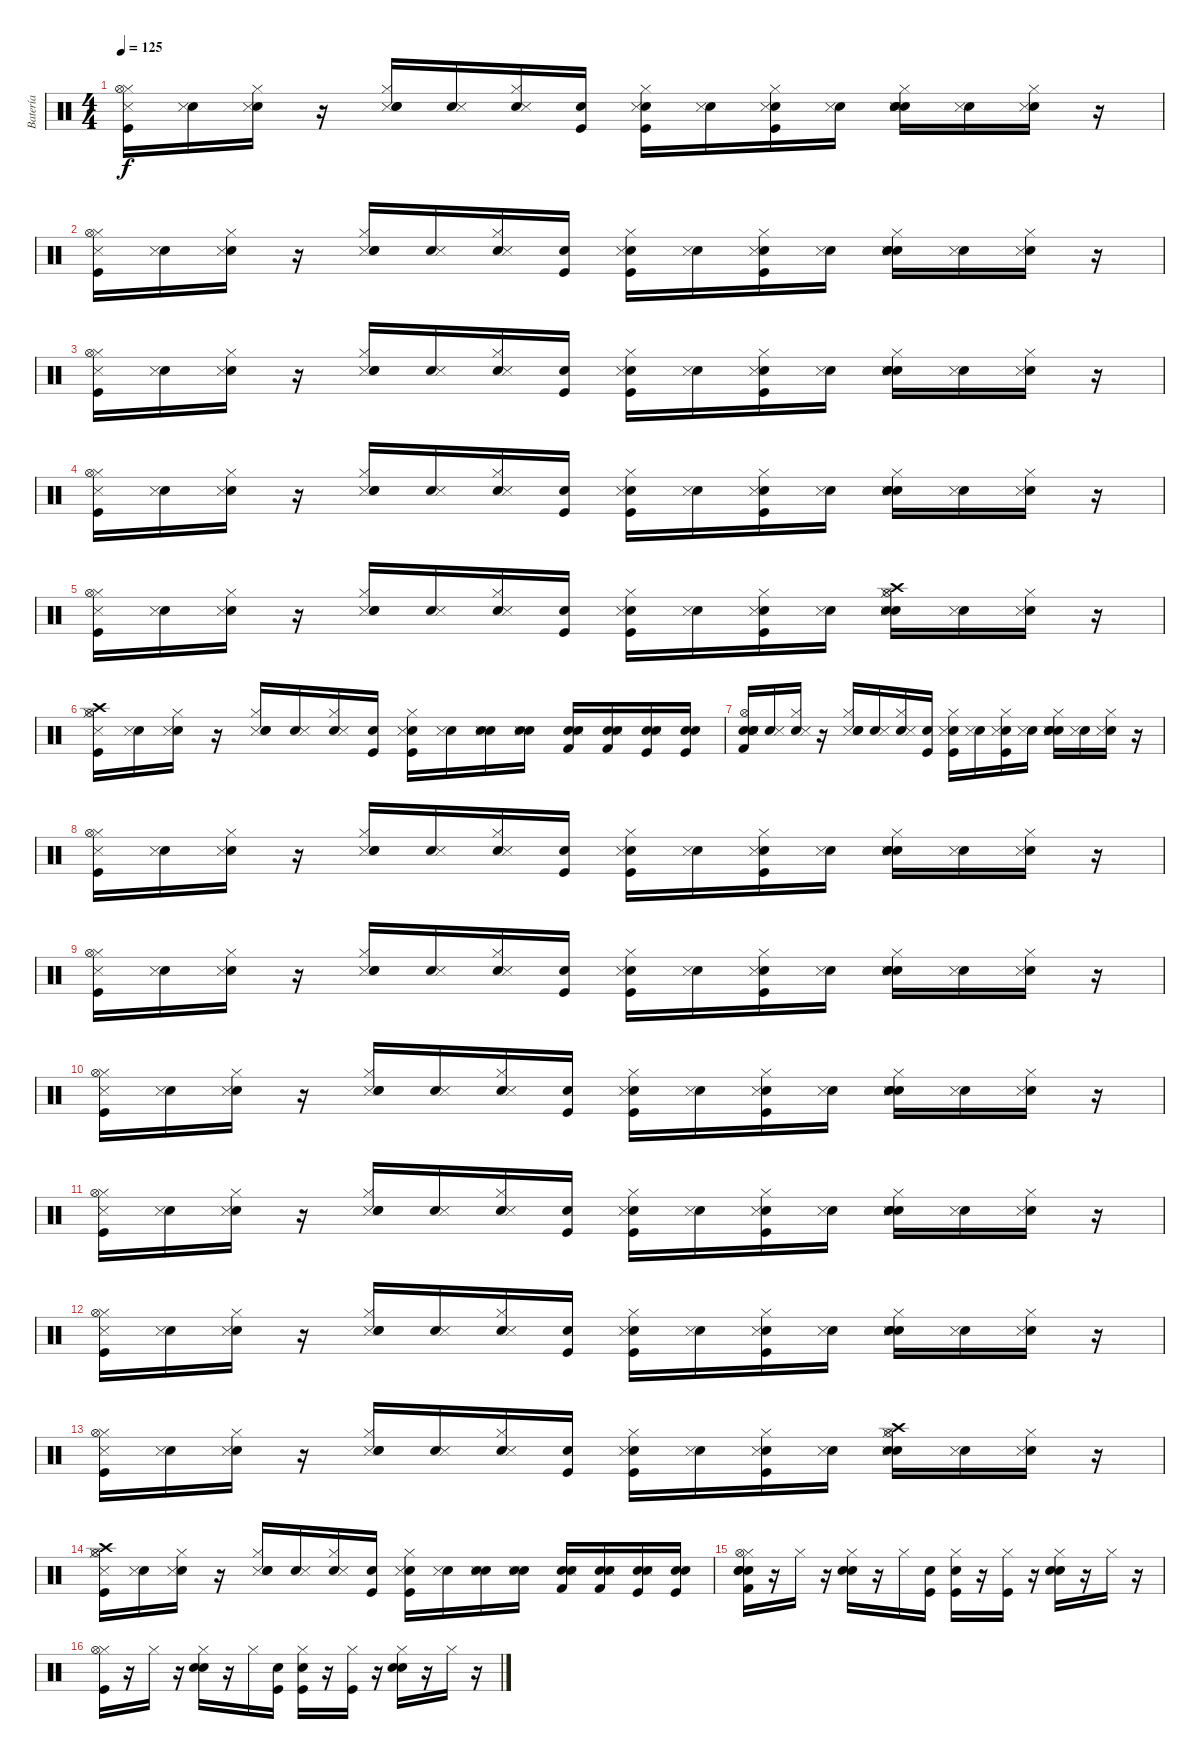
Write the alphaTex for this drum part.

\track ("Batería" "Batería") {instrument percussion}
\staff {score}
\articulation defaults
\ts (4 4)
\tempo 125
\clef neutral
\ks c
("Snare (side stick) 3" "Kick (hit)" "Hi-Hat (closed)" "Hi-Hat (open)").16{dy f} ("Snare (hit)" "Snare (side stick) 3").16 ("Snare (hit)" "Snare (side stick) 3" "Hi-Hat (closed)").16 r.16 ("Snare (side stick) 3" "Snare (hit) 2" "Electric Snare (hit)" "Hi-Hat (closed)").16 ("Snare (hit)" "Snare (side stick) 3").16 ("Snare (hit)" "Snare (side stick) 3" "Hi-Hat (closed)").16 ("Snare (hit)" "Kick (hit)").16 ("Snare (hit)" "Snare (side stick) 3" "Kick (hit)" "Hi-Hat (closed)").16 ("Snare (hit)" "Snare (side stick) 3").16 ("Snare (hit)" "Snare (side stick) 3" "Kick (hit)" "Hi-Hat (closed)").16 ("Snare (hit)" "Snare (side stick) 3").16 ("Snare (hit)" "Snare (side stick) 3" "Snare (hit) 2" "Electric Snare (hit)" "Hi-Hat (closed)").16 ("Snare (hit)" "Snare (side stick) 3").16 ("Snare (hit)" "Snare (side stick) 3" "Hi-Hat (closed)").16 r.16 |
("Snare (side stick) 3" "Kick (hit)" "Hi-Hat (closed)" "Hi-Hat (open)").16 ("Snare (hit)" "Snare (side stick) 3").16 ("Snare (hit)" "Snare (side stick) 3" "Hi-Hat (closed)").16 r.16 ("Snare (side stick) 3" "Snare (hit) 2" "Electric Snare (hit)" "Hi-Hat (closed)").16 ("Snare (hit)" "Snare (side stick) 3").16 ("Snare (hit)" "Snare (side stick) 3" "Hi-Hat (closed)").16 ("Snare (hit)" "Kick (hit)").16 ("Snare (hit)" "Snare (side stick) 3" "Kick (hit)" "Hi-Hat (closed)").16 ("Snare (hit)" "Snare (side stick) 3").16 ("Snare (hit)" "Snare (side stick) 3" "Kick (hit)" "Hi-Hat (closed)").16 ("Snare (hit)" "Snare (side stick) 3").16 ("Snare (hit)" "Snare (side stick) 3" "Snare (hit) 2" "Electric Snare (hit)" "Hi-Hat (closed)").16 ("Snare (hit)" "Snare (side stick) 3").16 ("Snare (hit)" "Snare (side stick) 3" "Hi-Hat (closed)").16 r.16 |
("Snare (side stick) 3" "Kick (hit)" "Hi-Hat (closed)" "Hi-Hat (open)").16 ("Snare (hit)" "Snare (side stick) 3").16 ("Snare (hit)" "Snare (side stick) 3" "Hi-Hat (closed)").16 r.16 ("Snare (side stick) 3" "Snare (hit) 2" "Electric Snare (hit)" "Hi-Hat (closed)").16 ("Snare (hit)" "Snare (side stick) 3").16 ("Snare (hit)" "Snare (side stick) 3" "Hi-Hat (closed)").16 ("Snare (hit)" "Kick (hit)").16 ("Snare (hit)" "Snare (side stick) 3" "Kick (hit)" "Hi-Hat (closed)").16 ("Snare (hit)" "Snare (side stick) 3").16 ("Snare (hit)" "Snare (side stick) 3" "Kick (hit)" "Hi-Hat (closed)").16 ("Snare (hit)" "Snare (side stick) 3").16 ("Snare (hit)" "Snare (side stick) 3" "Snare (hit) 2" "Electric Snare (hit)" "Hi-Hat (closed)").16 ("Snare (hit)" "Snare (side stick) 3").16 ("Snare (hit)" "Snare (side stick) 3" "Hi-Hat (closed)").16 r.16 |
("Snare (side stick) 3" "Kick (hit)" "Hi-Hat (closed)" "Hi-Hat (open)").16 ("Snare (hit)" "Snare (side stick) 3").16 ("Snare (hit)" "Snare (side stick) 3" "Hi-Hat (closed)").16 r.16 ("Snare (side stick) 3" "Snare (hit) 2" "Electric Snare (hit)" "Hi-Hat (closed)").16 ("Snare (hit)" "Snare (side stick) 3").16 ("Snare (hit)" "Snare (side stick) 3" "Hi-Hat (closed)").16 ("Snare (hit)" "Kick (hit)").16 ("Snare (hit)" "Snare (side stick) 3" "Kick (hit)" "Hi-Hat (closed)").16 ("Snare (hit)" "Snare (side stick) 3").16 ("Snare (hit)" "Snare (side stick) 3" "Kick (hit)" "Hi-Hat (closed)").16 ("Snare (hit)" "Snare (side stick) 3").16 ("Snare (hit)" "Snare (side stick) 3" "Snare (hit) 2" "Electric Snare (hit)" "Hi-Hat (closed)").16 ("Snare (hit)" "Snare (side stick) 3").16 ("Snare (hit)" "Snare (side stick) 3" "Hi-Hat (closed)").16 r.16 |
("Snare (side stick) 3" "Kick (hit)" "Hi-Hat (closed)" "Hi-Hat (open)").16 ("Snare (hit)" "Snare (side stick) 3").16 ("Snare (hit)" "Snare (side stick) 3" "Hi-Hat (closed)").16 r.16 ("Snare (side stick) 3" "Electric Snare (hit)" "Snare (hit) 2" "Hi-Hat (closed)").16 ("Snare (hit)" "Snare (side stick) 3").16 ("Snare (hit)" "Snare (side stick) 3" "Hi-Hat (closed)").16 ("Snare (hit)" "Kick (hit)").16 ("Snare (hit)" "Snare (side stick) 3" "Kick (hit)" "Hi-Hat (closed)").16 ("Snare (hit)" "Snare (side stick) 3").16 ("Snare (hit)" "Snare (side stick) 3" "Kick (hit)" "Hi-Hat (closed)").16 ("Snare (hit)" "Snare (side stick) 3").16 ("Snare (hit)" "Snare (side stick) 3" "Hi-Hat (open)" "Crash high (hit)" "Snare (hit) 2" "Hi-Hat (closed)").16 ("Snare (hit)" "Snare (side stick) 3").16 ("Snare (hit)" "Snare (side stick) 3" "Hi-Hat (closed)").16 r.16 |
("Snare (side stick) 3" "Crash high (hit)" "Kick (hit)" "Hi-Hat (closed)" "Hi-Hat (open)").16 ("Snare (hit)" "Snare (side stick) 3").16 ("Snare (hit)" "Snare (side stick) 3" "Hi-Hat (closed)").16 r.16 ("Snare (side stick) 3" "Snare (hit) 2" "Electric Snare (hit)" "Hi-Hat (closed)").16 ("Snare (hit)" "Snare (side stick) 3").16 ("Snare (hit)" "Snare (side stick) 3" "Hi-Hat (closed)").16 ("Snare (hit)" "Kick (hit)").16 ("Snare (hit)" "Snare (side stick) 3" "Kick (hit)" "Hi-Hat (closed)").16 ("Snare (hit)" "Snare (side stick) 3").16 ("Snare (hit)" "Snare (side stick) 3" "Electric Snare (hit)").16 ("Snare (hit)" "Snare (side stick) 3" "Electric Snare (hit)").16 ("Snare (hit)" "Snare (side stick) 3" "Kick (hit) 2" "Electric Snare (hit)").16 ("Snare (hit)" "Snare (side stick) 3" "Kick (hit) 2" "Electric Snare (hit)").16 ("Snare (hit)" "Snare (side stick) 3" "Snare (hit) 2" "Kick (hit)").16 ("Snare (hit)" "Snare (hit) 2" "Kick (hit)").16 |
("Snare (hit)" "Snare (side stick) 3" "Kick (hit) 2" "Snare (hit) 2" "Electric Snare (hit)" "Hi-Hat (open)").16 ("Snare (hit)" "Snare (side stick) 3").16 ("Snare (hit)" "Snare (side stick) 3" "Hi-Hat (closed)").16 r.16 ("Snare (side stick) 3" "Snare (hit) 2" "Electric Snare (hit)" "Hi-Hat (closed)").16 ("Snare (hit)" "Snare (side stick) 3").16 ("Snare (hit)" "Snare (side stick) 3" "Hi-Hat (closed)").16 ("Snare (hit)" "Kick (hit)").16 ("Snare (hit)" "Snare (side stick) 3" "Hi-Hat (closed)" "Kick (hit)").16 ("Snare (hit)" "Snare (side stick) 3").16 ("Snare (hit)" "Snare (side stick) 3" "Hi-Hat (closed)" "Kick (hit)").16 ("Snare (hit)" "Snare (side stick) 3").16 ("Snare (hit)" "Snare (side stick) 3" "Hi-Hat (closed)" "Snare (hit) 2" "Electric Snare (hit)").16 ("Snare (hit)" "Snare (side stick) 3").16 ("Snare (hit)" "Snare (side stick) 3" "Hi-Hat (closed)").16 r.16 |
("Snare (side stick) 3" "Hi-Hat (closed)" "Kick (hit)" "Hi-Hat (open)").16 ("Snare (hit)" "Snare (side stick) 3").16 ("Snare (hit)" "Snare (side stick) 3" "Hi-Hat (closed)").16 r.16 ("Snare (side stick) 3" "Snare (hit) 2" "Electric Snare (hit)" "Hi-Hat (closed)").16 ("Snare (hit)" "Snare (side stick) 3").16 ("Snare (hit)" "Snare (side stick) 3" "Hi-Hat (closed)").16 ("Snare (hit)" "Kick (hit)").16 ("Snare (hit)" "Snare (side stick) 3" "Hi-Hat (closed)" "Kick (hit)").16 ("Snare (hit)" "Snare (side stick) 3").16 ("Snare (hit)" "Snare (side stick) 3" "Hi-Hat (closed)" "Kick (hit)").16 ("Snare (hit)" "Snare (side stick) 3").16 ("Snare (hit)" "Snare (side stick) 3" "Hi-Hat (closed)" "Snare (hit) 2" "Electric Snare (hit)").16 ("Snare (hit)" "Snare (side stick) 3").16 ("Snare (hit)" "Snare (side stick) 3" "Hi-Hat (closed)").16 r.16 |
("Snare (side stick) 3" "Kick (hit)" "Hi-Hat (closed)" "Hi-Hat (open)").16 ("Snare (hit)" "Snare (side stick) 3").16 ("Snare (hit)" "Snare (side stick) 3" "Hi-Hat (closed)").16 r.16 ("Snare (side stick) 3" "Snare (hit) 2" "Electric Snare (hit)" "Hi-Hat (closed)").16 ("Snare (hit)" "Snare (side stick) 3").16 ("Snare (hit)" "Snare (side stick) 3" "Hi-Hat (closed)").16 ("Snare (hit)" "Kick (hit)").16 ("Snare (hit)" "Snare (side stick) 3" "Kick (hit)" "Hi-Hat (closed)").16 ("Snare (hit)" "Snare (side stick) 3").16 ("Snare (hit)" "Snare (side stick) 3" "Kick (hit)" "Hi-Hat (closed)").16 ("Snare (hit)" "Snare (side stick) 3").16 ("Snare (hit)" "Snare (side stick) 3" "Snare (hit) 2" "Electric Snare (hit)" "Hi-Hat (closed)").16 ("Snare (hit)" "Snare (side stick) 3").16 ("Snare (hit)" "Snare (side stick) 3" "Hi-Hat (closed)").16 r.16 |
("Snare (side stick) 3" "Kick (hit)" "Hi-Hat (closed)" "Hi-Hat (open)").16 ("Snare (hit)" "Snare (side stick) 3").16 ("Snare (hit)" "Snare (side stick) 3" "Hi-Hat (closed)").16 r.16 ("Snare (side stick) 3" "Snare (hit) 2" "Electric Snare (hit)" "Hi-Hat (closed)").16 ("Snare (hit)" "Snare (side stick) 3").16 ("Snare (hit)" "Snare (side stick) 3" "Hi-Hat (closed)").16 ("Snare (hit)" "Kick (hit)").16 ("Snare (hit)" "Snare (side stick) 3" "Kick (hit)" "Hi-Hat (closed)").16 ("Snare (hit)" "Snare (side stick) 3").16 ("Snare (hit)" "Snare (side stick) 3" "Kick (hit)" "Hi-Hat (closed)").16 ("Snare (hit)" "Snare (side stick) 3").16 ("Snare (hit)" "Snare (side stick) 3" "Snare (hit) 2" "Electric Snare (hit)" "Hi-Hat (closed)").16 ("Snare (hit)" "Snare (side stick) 3").16 ("Snare (hit)" "Snare (side stick) 3" "Hi-Hat (closed)").16 r.16 |
("Snare (side stick) 3" "Kick (hit)" "Hi-Hat (closed)" "Hi-Hat (open)").16 ("Snare (hit)" "Snare (side stick) 3").16 ("Snare (hit)" "Snare (side stick) 3" "Hi-Hat (closed)").16 r.16 ("Snare (side stick) 3" "Snare (hit) 2" "Electric Snare (hit)" "Hi-Hat (closed)").16 ("Snare (hit)" "Snare (side stick) 3").16 ("Snare (hit)" "Snare (side stick) 3" "Hi-Hat (closed)").16 ("Snare (hit)" "Kick (hit)").16 ("Snare (hit)" "Snare (side stick) 3" "Kick (hit)" "Hi-Hat (closed)").16 ("Snare (hit)" "Snare (side stick) 3").16 ("Snare (hit)" "Snare (side stick) 3" "Kick (hit)" "Hi-Hat (closed)").16 ("Snare (hit)" "Snare (side stick) 3").16 ("Snare (hit)" "Snare (side stick) 3" "Snare (hit) 2" "Electric Snare (hit)" "Hi-Hat (closed)").16 ("Snare (hit)" "Snare (side stick) 3").16 ("Snare (hit)" "Snare (side stick) 3" "Hi-Hat (closed)").16 r.16 |
("Snare (side stick) 3" "Kick (hit)" "Hi-Hat (closed)" "Hi-Hat (open)").16 ("Snare (hit)" "Snare (side stick) 3").16 ("Snare (hit)" "Snare (side stick) 3" "Hi-Hat (closed)").16 r.16 ("Snare (side stick) 3" "Snare (hit) 2" "Electric Snare (hit)" "Hi-Hat (closed)").16 ("Snare (hit)" "Snare (side stick) 3").16 ("Snare (hit)" "Snare (side stick) 3" "Hi-Hat (closed)").16 ("Snare (hit)" "Kick (hit)").16 ("Snare (hit)" "Snare (side stick) 3" "Kick (hit)" "Hi-Hat (closed)").16 ("Snare (hit)" "Snare (side stick) 3").16 ("Snare (hit)" "Snare (side stick) 3" "Kick (hit)" "Hi-Hat (closed)").16 ("Snare (hit)" "Snare (side stick) 3").16 ("Snare (hit)" "Snare (side stick) 3" "Snare (hit) 2" "Electric Snare (hit)" "Hi-Hat (closed)").16 ("Snare (hit)" "Snare (side stick) 3").16 ("Snare (hit)" "Snare (side stick) 3" "Hi-Hat (closed)").16 r.16 |
("Snare (side stick) 3" "Kick (hit)" "Hi-Hat (closed)" "Hi-Hat (open)").16 ("Snare (hit)" "Snare (side stick) 3").16 ("Snare (hit)" "Snare (side stick) 3" "Hi-Hat (closed)").16 r.16 ("Snare (side stick) 3" "Electric Snare (hit)" "Snare (hit) 2" "Hi-Hat (closed)").16 ("Snare (hit)" "Snare (side stick) 3").16 ("Snare (hit)" "Snare (side stick) 3" "Hi-Hat (closed)").16 ("Snare (hit)" "Kick (hit)").16 ("Snare (hit)" "Snare (side stick) 3" "Kick (hit)" "Hi-Hat (closed)").16 ("Snare (hit)" "Snare (side stick) 3").16 ("Snare (hit)" "Snare (side stick) 3" "Kick (hit)" "Hi-Hat (closed)").16 ("Snare (hit)" "Snare (side stick) 3").16 ("Snare (hit)" "Snare (side stick) 3" "Hi-Hat (open)" "Crash high (hit)" "Snare (hit) 2" "Hi-Hat (closed)").16 ("Snare (hit)" "Snare (side stick) 3").16 ("Snare (hit)" "Snare (side stick) 3" "Hi-Hat (closed)").16 r.16 |
("Snare (side stick) 3" "Crash high (hit)" "Kick (hit)" "Hi-Hat (closed)" "Hi-Hat (open)").16 ("Snare (hit)" "Snare (side stick) 3").16 ("Snare (hit)" "Snare (side stick) 3" "Hi-Hat (closed)").16 r.16 ("Snare (side stick) 3" "Snare (hit) 2" "Electric Snare (hit)" "Hi-Hat (closed)").16 ("Snare (hit)" "Snare (side stick) 3").16 ("Snare (hit)" "Snare (side stick) 3" "Hi-Hat (closed)").16 ("Snare (hit)" "Kick (hit)").16 ("Snare (hit)" "Snare (side stick) 3" "Kick (hit)" "Hi-Hat (closed)").16 ("Snare (hit)" "Snare (side stick) 3").16 ("Snare (hit)" "Snare (side stick) 3" "Electric Snare (hit)").16 ("Snare (hit)" "Snare (side stick) 3" "Electric Snare (hit)").16 ("Snare (hit)" "Snare (side stick) 3" "Kick (hit) 2" "Electric Snare (hit)").16 ("Snare (hit)" "Snare (side stick) 3" "Kick (hit) 2" "Electric Snare (hit)").16 ("Snare (hit)" "Snare (side stick) 3" "Snare (hit) 2" "Kick (hit)").16 ("Snare (hit)" "Snare (hit) 2" "Kick (hit)").16 |
("Snare (hit)" "Kick (hit) 2" "Snare (hit) 2" "Electric Snare (hit)" "Hi-Hat (closed)" "Hi-Hat (open)").16 r.16 "Hi-Hat (closed)".16 r.16 ("Snare (hit) 2" "Electric Snare (hit)" "Hi-Hat (closed)").16 r.16 "Hi-Hat (closed)".16 ("Snare (hit)" "Kick (hit)").16 ("Snare (hit)" "Hi-Hat (closed)" "Kick (hit)").16 r.16 ("Hi-Hat (closed)" "Kick (hit)").16 r.16 ("Hi-Hat (closed)" "Snare (hit) 2" "Electric Snare (hit)").16 r.16 "Hi-Hat (closed)".16 r.16 |
("Hi-Hat (closed)" "Kick (hit)" "Hi-Hat (open)").16 r.16 "Hi-Hat (closed)".16 r.16 ("Snare (hit) 2" "Electric Snare (hit)" "Hi-Hat (closed)").16 r.16 "Hi-Hat (closed)".16 ("Snare (hit)" "Kick (hit)").16 ("Snare (hit)" "Hi-Hat (closed)" "Kick (hit)").16 r.16 ("Hi-Hat (closed)" "Kick (hit)").16 r.16 ("Hi-Hat (closed)" "Snare (hit) 2" "Electric Snare (hit)").16 r.16 "Hi-Hat (closed)".16 r.16
